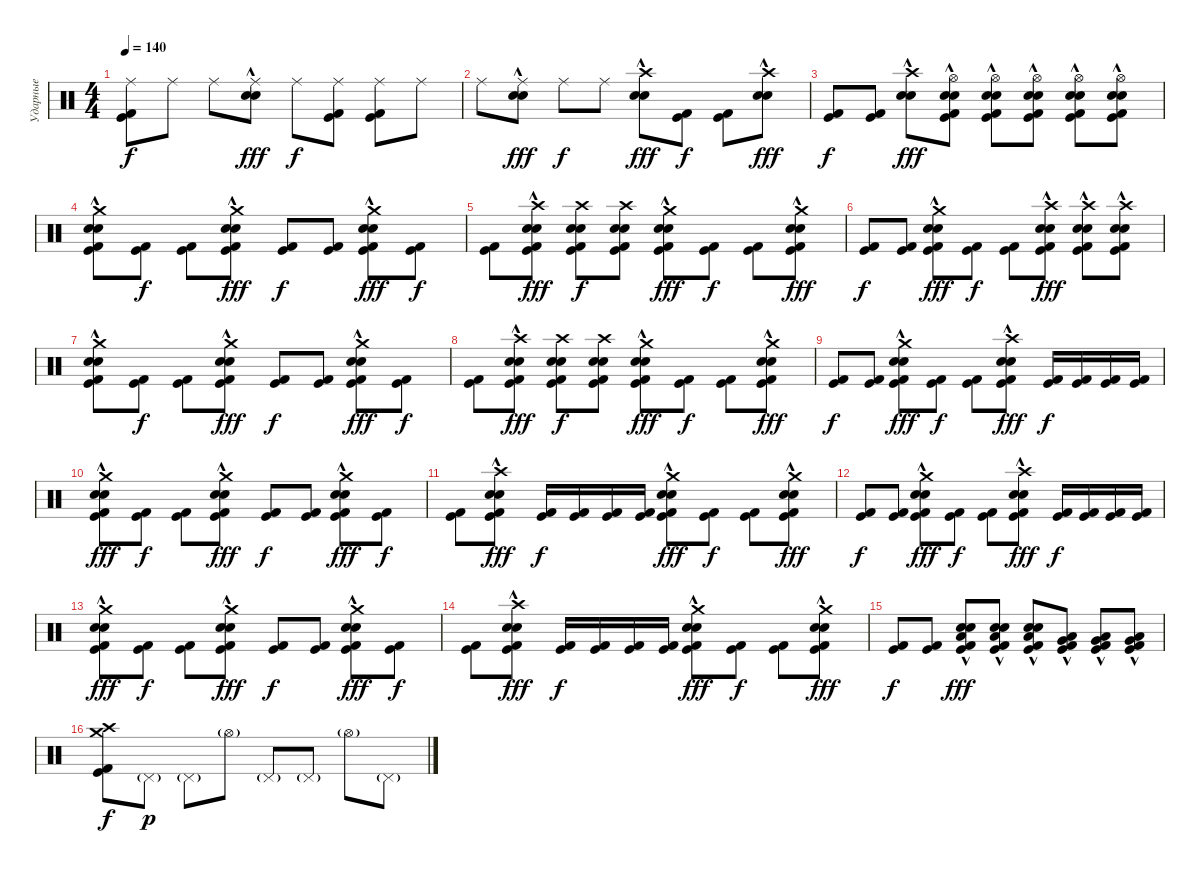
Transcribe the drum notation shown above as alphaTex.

\track ("Ударные" "Ударные") {instrument percussion}
\staff {score}
\articulation defaults
\ts (4 4)
\tempo 140
\clef neutral
\ks c
("Ride (middle)" "Kick (hit)" "Kick (hit) 2").8{dy f} "Ride (middle)".8 "Ride (middle)".8 ("Ride (middle)" "Snare (hit) 2"{hac} "Electric Snare (hit)"{hac}).8{dy fff} "Ride (middle)".8{dy f} ("Ride (middle)" "Kick (hit)" "Kick (hit) 2").8 ("Ride (middle)" "Kick (hit)" "Kick (hit) 2").8 "Ride (middle)".8 |
"Ride (middle)".8 ("Ride (middle)" "Snare (hit) 2"{hac} "Electric Snare (hit)"{hac}).8{dy fff} "Ride (middle)".8{dy f} "Ride (middle)".8 ("Crash high (hit)" "Snare (hit) 2"{hac} "Electric Snare (hit)"{hac}).8{dy fff} ("Kick (hit)" "Kick (hit) 2").8{dy f} ("Kick (hit)" "Kick (hit) 2").8 ("Crash high (hit)" "Snare (hit) 2"{hac} "Electric Snare (hit)"{hac}).8{dy fff} |
("Kick (hit)" "Kick (hit) 2").8{dy f} ("Kick (hit)" "Kick (hit) 2").8 ("Crash high (hit)" "Snare (hit) 2"{hac} "Electric Snare (hit)"{hac}).8{dy fff} ("Hi-Hat (open)" "Kick (hit)" "Kick (hit) 2" "Snare (hit) 2"{hac} "Electric Snare (hit)"{hac}).8 ("Hi-Hat (open)" "Kick (hit)" "Kick (hit) 2" "Snare (hit) 2"{hac} "Electric Snare (hit)"{hac}).8 ("Hi-Hat (open)" "Kick (hit)" "Kick (hit) 2" "Snare (hit) 2"{hac} "Electric Snare (hit)"{hac}).8 ("Hi-Hat (open)" "Kick (hit)" "Kick (hit) 2" "Snare (hit) 2"{hac} "Electric Snare (hit)"{hac}).8 ("Hi-Hat (open)" "Kick (hit)" "Kick (hit) 2" "Snare (hit) 2"{hac} "Electric Snare (hit)"{hac}).8 |
("Crash medium (hit)" "Kick (hit)" "Kick (hit) 2" "Snare (hit) 2"{hac} "Electric Snare (hit)"{hac}).8 ("Kick (hit)" "Kick (hit) 2").8{dy f} ("Kick (hit)" "Kick (hit) 2").8 ("Crash medium (hit)" "Kick (hit)" "Kick (hit) 2" "Snare (hit) 2"{hac} "Electric Snare (hit)"{hac}).8{dy fff} ("Kick (hit)" "Kick (hit) 2").8{dy f} ("Kick (hit)" "Kick (hit) 2").8 ("Crash medium (hit)" "Kick (hit)" "Kick (hit) 2" "Snare (hit) 2"{hac} "Electric Snare (hit)"{hac}).8{dy fff} ("Kick (hit)" "Kick (hit) 2").8{dy f} |
("Kick (hit)" "Kick (hit) 2").8 ("Crash high (hit)" "Kick (hit)" "Kick (hit) 2" "Snare (hit) 2"{hac} "Electric Snare (hit)"{hac}).8{dy fff} ("Crash high (hit)" "Kick (hit)" "Kick (hit) 2" "Snare (hit) 2" "Electric Snare (hit)").8{dy f} ("Crash high (hit)" "Kick (hit)" "Kick (hit) 2" "Snare (hit) 2" "Electric Snare (hit)").8 ("Crash medium (hit)" "Kick (hit)" "Kick (hit) 2" "Snare (hit) 2"{hac} "Electric Snare (hit)"{hac}).8{dy fff} ("Kick (hit)" "Kick (hit) 2").8{dy f} ("Kick (hit)" "Kick (hit) 2").8 ("Crash medium (hit)" "Kick (hit)" "Kick (hit) 2" "Snare (hit) 2"{hac} "Electric Snare (hit)"{hac}).8{dy fff} |
("Kick (hit)" "Kick (hit) 2").8{dy f} ("Kick (hit)" "Kick (hit) 2").8 ("Crash medium (hit)" "Kick (hit)" "Kick (hit) 2" "Snare (hit) 2"{hac} "Electric Snare (hit)"{hac}).8{dy fff} ("Kick (hit)" "Kick (hit) 2").8{dy f} ("Kick (hit)" "Kick (hit) 2").8 ("Crash high (hit)" "Kick (hit)" "Kick (hit) 2" "Snare (hit) 2"{hac} "Electric Snare (hit)"{hac}).8{dy fff} ("Crash high (hit)" "Kick (hit)" "Kick (hit) 2" "Snare (hit) 2"{hac} "Electric Snare (hit)"{hac}).8 ("Crash high (hit)" "Kick (hit)" "Kick (hit) 2" "Snare (hit) 2"{hac} "Electric Snare (hit)"{hac}).8 |
("Crash medium (hit)" "Kick (hit)" "Kick (hit) 2" "Snare (hit) 2"{hac} "Electric Snare (hit)"{hac}).8 ("Kick (hit)" "Kick (hit) 2").8{dy f} ("Kick (hit)" "Kick (hit) 2").8 ("Crash medium (hit)" "Kick (hit)" "Kick (hit) 2" "Snare (hit) 2"{hac} "Electric Snare (hit)"{hac}).8{dy fff} ("Kick (hit)" "Kick (hit) 2").8{dy f} ("Kick (hit)" "Kick (hit) 2").8 ("Crash medium (hit)" "Kick (hit)" "Kick (hit) 2" "Snare (hit) 2"{hac} "Electric Snare (hit)"{hac}).8{dy fff} ("Kick (hit)" "Kick (hit) 2").8{dy f} |
("Kick (hit)" "Kick (hit) 2").8 ("Crash high (hit)" "Kick (hit)" "Kick (hit) 2" "Snare (hit) 2"{hac} "Electric Snare (hit)"{hac}).8{dy fff} ("Crash high (hit)" "Kick (hit)" "Kick (hit) 2" "Snare (hit) 2" "Electric Snare (hit)").8{dy f} ("Crash high (hit)" "Kick (hit)" "Kick (hit) 2" "Snare (hit) 2" "Electric Snare (hit)").8 ("Crash medium (hit)" "Kick (hit)" "Kick (hit) 2" "Snare (hit) 2"{hac} "Electric Snare (hit)"{hac}).8{dy fff} ("Kick (hit)" "Kick (hit) 2").8{dy f} ("Kick (hit)" "Kick (hit) 2").8 ("Crash medium (hit)" "Kick (hit)" "Kick (hit) 2" "Snare (hit) 2"{hac} "Electric Snare (hit)"{hac}).8{dy fff} |
("Kick (hit)" "Kick (hit) 2").8{dy f} ("Kick (hit)" "Kick (hit) 2").8 ("Crash medium (hit)" "Kick (hit)" "Kick (hit) 2" "Snare (hit) 2"{hac} "Electric Snare (hit)"{hac}).8{dy fff} ("Kick (hit)" "Kick (hit) 2").8{dy f} ("Kick (hit)" "Kick (hit) 2").8 ("Crash high (hit)" "Kick (hit)" "Kick (hit) 2" "Snare (hit) 2"{hac} "Electric Snare (hit)"{hac}).8{dy fff} ("Kick (hit)" "Kick (hit) 2").16{dy f} ("Kick (hit)" "Kick (hit) 2").16 ("Kick (hit)" "Kick (hit) 2").16 ("Kick (hit)" "Kick (hit) 2").16 |
("Crash medium (hit)" "Kick (hit)" "Kick (hit) 2" "Snare (hit) 2"{hac} "Electric Snare (hit)"{hac}).8{dy fff} ("Kick (hit)" "Kick (hit) 2").8{dy f} ("Kick (hit)" "Kick (hit) 2").8 ("Crash medium (hit)" "Kick (hit)" "Kick (hit) 2" "Snare (hit) 2"{hac} "Electric Snare (hit)"{hac}).8{dy fff} ("Kick (hit)" "Kick (hit) 2").8{dy f} ("Kick (hit)" "Kick (hit) 2").8 ("Crash medium (hit)" "Kick (hit)" "Kick (hit) 2" "Snare (hit) 2"{hac} "Electric Snare (hit)"{hac}).8{dy fff} ("Kick (hit)" "Kick (hit) 2").8{dy f} |
("Kick (hit)" "Kick (hit) 2").8 ("Crash high (hit)" "Kick (hit)" "Kick (hit) 2" "Snare (hit) 2"{hac} "Electric Snare (hit)"{hac}).8{dy fff} ("Kick (hit)" "Kick (hit) 2").16{dy f} ("Kick (hit)" "Kick (hit) 2").16 ("Kick (hit)" "Kick (hit) 2").16 ("Kick (hit)" "Kick (hit) 2").16 ("Crash medium (hit)" "Kick (hit)" "Kick (hit) 2" "Snare (hit) 2"{hac} "Electric Snare (hit)"{hac}).8{dy fff} ("Kick (hit)" "Kick (hit) 2").8{dy f} ("Kick (hit)" "Kick (hit) 2").8 ("Crash medium (hit)" "Kick (hit)" "Kick (hit) 2" "Snare (hit) 2"{hac} "Electric Snare (hit)"{hac}).8{dy fff} |
("Kick (hit)" "Kick (hit) 2").8{dy f} ("Kick (hit)" "Kick (hit) 2").8 ("Crash medium (hit)" "Kick (hit)" "Kick (hit) 2" "Snare (hit) 2"{hac} "Electric Snare (hit)"{hac}).8{dy fff} ("Kick (hit)" "Kick (hit) 2").8{dy f} ("Kick (hit)" "Kick (hit) 2").8 ("Crash high (hit)" "Kick (hit)" "Kick (hit) 2" "Snare (hit) 2"{hac} "Electric Snare (hit)"{hac}).8{dy fff} ("Kick (hit)" "Kick (hit) 2").16{dy f} ("Kick (hit)" "Kick (hit) 2").16 ("Kick (hit)" "Kick (hit) 2").16 ("Kick (hit)" "Kick (hit) 2").16 |
("Crash medium (hit)" "Kick (hit)" "Kick (hit) 2" "Snare (hit) 2"{hac} "Electric Snare (hit)"{hac}).8{dy fff} ("Kick (hit)" "Kick (hit) 2").8{dy f} ("Kick (hit)" "Kick (hit) 2").8 ("Crash medium (hit)" "Kick (hit)" "Kick (hit) 2" "Snare (hit) 2"{hac} "Electric Snare (hit)"{hac}).8{dy fff} ("Kick (hit)" "Kick (hit) 2").8{dy f} ("Kick (hit)" "Kick (hit) 2").8 ("Crash medium (hit)" "Kick (hit)" "Kick (hit) 2" "Snare (hit) 2"{hac} "Electric Snare (hit)"{hac}).8{dy fff} ("Kick (hit)" "Kick (hit) 2").8{dy f} |
("Kick (hit)" "Kick (hit) 2").8 ("Crash high (hit)" "Kick (hit)" "Kick (hit) 2" "Snare (hit) 2"{hac} "Electric Snare (hit)"{hac}).8{dy fff} ("Kick (hit)" "Kick (hit) 2").16{dy f} ("Kick (hit)" "Kick (hit) 2").16 ("Kick (hit)" "Kick (hit) 2").16 ("Kick (hit)" "Kick (hit) 2").16 ("Crash medium (hit)" "Kick (hit)" "Kick (hit) 2" "Snare (hit) 2"{hac} "Electric Snare (hit)"{hac}).8{dy fff} ("Kick (hit)" "Kick (hit) 2").8{dy f} ("Kick (hit)" "Kick (hit) 2").8 ("Crash medium (hit)" "Kick (hit)" "Kick (hit) 2" "Snare (hit) 2"{hac} "Electric Snare (hit)"{hac}).8{dy fff} |
("Kick (hit)" "Kick (hit) 2").8{dy f} ("Kick (hit)" "Kick (hit) 2").8 ("Kick (hit)" "Kick (hit) 2" "Snare (hit) 2"{hac} "Electric Snare (hit)"{hac} "Low Floor Tom (hit)"{hac}).8{dy fff} ("Kick (hit)" "Kick (hit) 2" "Snare (hit) 2"{hac} "Electric Snare (hit)"{hac} "Low Floor Tom (hit)"{hac}).8 ("Kick (hit)" "Kick (hit) 2" "Snare (hit) 2"{hac} "Electric Snare (hit)"{hac} "Low Floor Tom (hit)"{hac}).8 ("Kick (hit)" "Kick (hit) 2" "Low Tom (hit)"{hac} "Very Low Tom (hit)"{hac}).8 ("Kick (hit)" "Kick (hit) 2" "Low Tom (hit)"{hac} "Very Low Tom (hit)"{hac}).8 ("Kick (hit)" "Kick (hit) 2" "Low Tom (hit)"{hac} "Very Low Tom (hit)"{hac}).8 |
("Crash high (hit)" "Kick (hit)" "Kick (hit) 2" "Crash medium (hit)").8{dy f} "Pedal Hi-Hat (hit)"{g}.8{dy p} "Pedal Hi-Hat (hit)"{g}.8 "Hi-Hat (open)"{g}.8 "Pedal Hi-Hat (hit)"{g}.8 "Pedal Hi-Hat (hit)"{g}.8 "Hi-Hat (open)"{g}.8 "Pedal Hi-Hat (hit)"{g}.8
